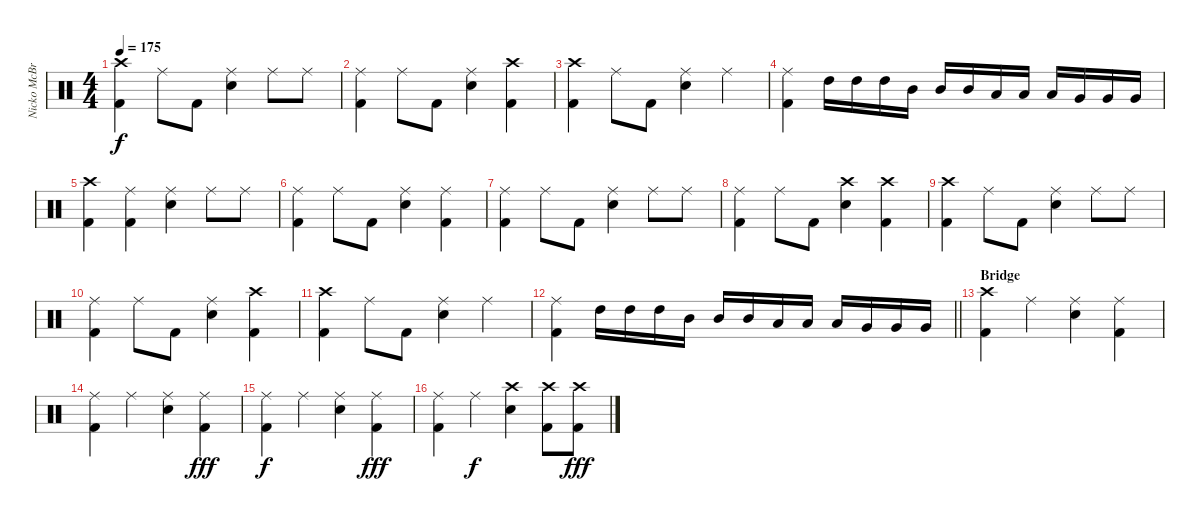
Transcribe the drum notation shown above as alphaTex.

\track ("Nicko McBrian" "Nicko McBr") {instrument percussion}
\staff {score}
\articulation defaults
\ts (4 4)
\tempo 175
\clef neutral
\ks c
("Crash high (hit)" "Kick (hit) 2").4{dy f} "Ride (middle)".8 "Kick (hit) 2".8 ("Ride (middle)" "Electric Snare (hit)").4 "Ride (middle)".8 "Ride (middle)".8 |
("Ride (middle)" "Kick (hit) 2").4 "Ride (middle)".8 "Kick (hit) 2".8 ("Ride (middle)" "Electric Snare (hit)").4 ("Crash high (hit)" "Kick (hit) 2").4 |
("Crash high (hit)" "Kick (hit) 2").4 "Ride (middle)".8 "Kick (hit) 2".8 ("Ride (middle)" "Electric Snare (hit)").4 "Ride (middle)".4 |
("Ride (middle)" "Kick (hit) 2").4 "High Tom (hit)".16 "High Tom (hit)".16 "High Tom (hit)".16 "Mid Tom (hit)".16 "Mid Tom (hit)".16 "Mid Tom (hit)".16 "Low Tom (hit)".16 "Low Tom (hit)".16 "Low Tom (hit)".16 "Very Low Tom (hit)".16 "Very Low Tom (hit)".16 "Very Low Tom (hit)".16 |
("Crash high (hit)" "Kick (hit) 2").4 ("Ride (middle)" "Kick (hit) 2").4 ("Ride (middle)" "Electric Snare (hit)").4 "Ride (middle)".8 "Ride (middle)".8 |
("Ride (middle)" "Kick (hit) 2").4 "Ride (middle)".8 "Kick (hit) 2".8 ("Ride (middle)" "Electric Snare (hit)").4 ("Ride (middle)" "Kick (hit) 2").4 |
("Ride (middle)" "Kick (hit) 2").4 "Ride (middle)".8 "Kick (hit) 2".8 ("Ride (middle)" "Electric Snare (hit)").4 "Ride (middle)".8 "Ride (middle)".8 |
("Ride (middle)" "Kick (hit) 2").4 "Ride (middle)".8 "Kick (hit) 2".8 ("Crash high (hit)" "Electric Snare (hit)").4 ("Crash high (hit)" "Kick (hit) 2").4 |
("Crash high (hit)" "Kick (hit) 2").4 "Ride (middle)".8 "Kick (hit) 2".8 ("Ride (middle)" "Electric Snare (hit)").4 "Ride (middle)".8 "Ride (middle)".8 |
("Ride (middle)" "Kick (hit) 2").4 "Ride (middle)".8 "Kick (hit) 2".8 ("Ride (middle)" "Electric Snare (hit)").4 ("Crash high (hit)" "Kick (hit) 2").4 |
("Crash high (hit)" "Kick (hit) 2").4 "Ride (middle)".8 "Kick (hit) 2".8 ("Ride (middle)" "Electric Snare (hit)").4 "Ride (middle)".4 |
\barLineRight lightlight
("Ride (middle)" "Kick (hit) 2").4 "High Tom (hit)".16 "High Tom (hit)".16 "High Tom (hit)".16 "Mid Tom (hit)".16 "Mid Tom (hit)".16 "Mid Tom (hit)".16 "Low Tom (hit)".16 "Low Tom (hit)".16 "Low Tom (hit)".16 "Very Low Tom (hit)".16 "Very Low Tom (hit)".16 "Very Low Tom (hit)".16 |
\section ("" "Bridge")
("Crash high (hit)" "Kick (hit) 2").4 "Ride (middle)".4 ("Ride (middle)" "Electric Snare (hit)").4 ("Ride (middle)" "Kick (hit) 2").4 |
("Ride (middle)" "Kick (hit) 2").4 "Ride (middle)".4 ("Ride (middle)" "Electric Snare (hit)").4 ("Ride (middle)" "Kick (hit) 2").4{dy fff} |
("Ride (middle)" "Kick (hit) 2").4{dy f} "Ride (middle)".4 ("Ride (middle)" "Electric Snare (hit)").4 ("Ride (middle)" "Kick (hit) 2").4{dy fff} |
("Ride (middle)" "Kick (hit) 2").4 "Ride (middle)".4{dy f} ("Crash high (hit)" "Electric Snare (hit)").4 ("Crash high (hit)" "Kick (hit) 2").8 ("Crash high (hit)" "Kick (hit) 2").8{dy fff}
